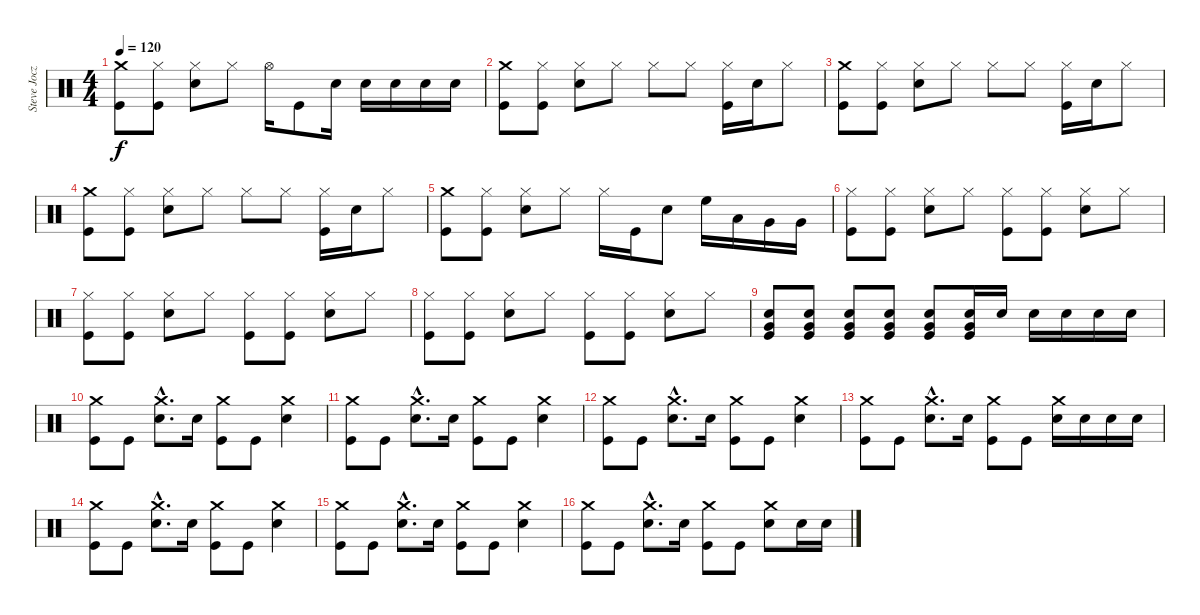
\track ("Steve Jocz (STEVO)" "Steve Jocz") {instrument percussion}
\staff {score}
\articulation defaults
\ts (4 4)
\tempo 120
\clef neutral
\ks c
("Crash medium (hit)" "Kick (hit)").8{dy f} ("Hi-Hat (closed)" "Kick (hit)").8 ("Hi-Hat (closed)" "Snare (hit) 2").8 "Hi-Hat (closed)".8 "Hi-Hat (open)".16 "Kick (hit)".8 "Snare (hit) 2".16 "Snare (hit) 2".16 "Snare (hit) 2".16 "Snare (hit) 2".16 "Snare (hit) 2".16 |
("Crash medium (hit)" "Kick (hit)").8 ("Hi-Hat (closed)" "Kick (hit)").8 ("Hi-Hat (closed)" "Snare (hit) 2").8 "Hi-Hat (closed)".8 "Hi-Hat (closed)".8 "Hi-Hat (closed)".8 ("Hi-Hat (closed)" "Kick (hit)").16 "Snare (hit) 2".16 "Hi-Hat (closed)".8 |
("Crash medium (hit)" "Kick (hit)").8 ("Hi-Hat (closed)" "Kick (hit)").8 ("Hi-Hat (closed)" "Snare (hit) 2").8 "Hi-Hat (closed)".8 "Hi-Hat (closed)".8 "Hi-Hat (closed)".8 ("Hi-Hat (closed)" "Kick (hit)").16 "Snare (hit) 2".16 "Hi-Hat (closed)".8 |
("Crash medium (hit)" "Kick (hit)").8 ("Hi-Hat (closed)" "Kick (hit)").8 ("Hi-Hat (closed)" "Snare (hit) 2").8 "Hi-Hat (closed)".8 "Hi-Hat (closed)".8 "Hi-Hat (closed)".8 ("Hi-Hat (closed)" "Kick (hit)").16 "Snare (hit) 2".16 "Hi-Hat (closed)".8 |
("Crash medium (hit)" "Kick (hit)").8 ("Hi-Hat (closed)" "Kick (hit)").8 ("Hi-Hat (closed)" "Snare (hit) 2").8 "Hi-Hat (closed)".8 "Hi-Hat (closed)".16 "Kick (hit)".16 "Snare (hit) 2".8 "High Floor Tom (hit)".16 "Low Tom (hit)".16 "Very Low Tom (hit)".16 "Very Low Tom (hit)".16 |
("Hi-Hat (closed)" "Kick (hit)").8 ("Hi-Hat (closed)" "Kick (hit)").8 ("Hi-Hat (closed)" "Snare (hit) 2").8 "Hi-Hat (closed)".8 ("Hi-Hat (closed)" "Kick (hit)").8 ("Hi-Hat (closed)" "Kick (hit)").8 ("Hi-Hat (closed)" "Snare (hit) 2").8 "Hi-Hat (closed)".8 |
("Hi-Hat (closed)" "Kick (hit)").8 ("Hi-Hat (closed)" "Kick (hit)").8 ("Hi-Hat (closed)" "Snare (hit) 2").8 "Hi-Hat (closed)".8 ("Hi-Hat (closed)" "Kick (hit)").8 ("Hi-Hat (closed)" "Kick (hit)").8 ("Hi-Hat (closed)" "Snare (hit) 2").8 "Hi-Hat (closed)".8 |
("Hi-Hat (closed)" "Kick (hit)").8 ("Hi-Hat (closed)" "Kick (hit)").8 ("Hi-Hat (closed)" "Snare (hit) 2").8 "Hi-Hat (closed)".8 ("Hi-Hat (closed)" "Kick (hit)").8 ("Hi-Hat (closed)" "Kick (hit)").8 ("Hi-Hat (closed)" "Snare (hit) 2").8 "Hi-Hat (closed)".8 |
("Very Low Tom (hit)" "Snare (hit) 2" "Kick (hit)").8 ("Very Low Tom (hit)" "Snare (hit) 2" "Kick (hit)").8 ("Very Low Tom (hit)" "Snare (hit) 2" "Kick (hit)").8 ("Very Low Tom (hit)" "Snare (hit) 2" "Kick (hit)").8 ("Very Low Tom (hit)" "Snare (hit) 2" "Kick (hit)").8 ("Very Low Tom (hit)" "Snare (hit) 2" "Kick (hit)").16 "Snare (hit) 2".16 "Snare (hit) 2".16 "Snare (hit) 2".16 "Snare (hit) 2".16 "Snare (hit) 2".16 |
("Crash medium (hit)" "Kick (hit)").8 "Kick (hit)".8 ("Crash medium (hit)"{hac} "Snare (hit) 2"{hac}).8{d} "Snare (hit) 2".16 ("Crash medium (hit)" "Kick (hit)").8 "Kick (hit)".8 ("Crash medium (hit)" "Snare (hit) 2").4 |
("Crash medium (hit)" "Kick (hit)").8 "Kick (hit)".8 ("Crash medium (hit)"{hac} "Snare (hit) 2"{hac}).8{d} "Snare (hit) 2".16 ("Crash medium (hit)" "Kick (hit)").8 "Kick (hit)".8 ("Crash medium (hit)" "Snare (hit) 2").4 |
("Crash medium (hit)" "Kick (hit)").8 "Kick (hit)".8 ("Crash medium (hit)"{hac} "Snare (hit) 2"{hac}).8{d} "Snare (hit) 2".16 ("Crash medium (hit)" "Kick (hit)").8 "Kick (hit)".8 ("Crash medium (hit)" "Snare (hit) 2").4 |
("Crash medium (hit)" "Kick (hit)").8 "Kick (hit)".8 ("Crash medium (hit)"{hac} "Snare (hit) 2"{hac}).8{d} "Snare (hit) 2".16 ("Crash medium (hit)" "Kick (hit)").8 "Kick (hit)".8 ("Crash medium (hit)" "Snare (hit) 2").16 "Snare (hit) 2".16 "Snare (hit) 2".16 "Snare (hit) 2".16 |
("Crash medium (hit)" "Kick (hit)").8 "Kick (hit)".8 ("Crash medium (hit)"{hac} "Snare (hit) 2"{hac}).8{d} "Snare (hit) 2".16 ("Crash medium (hit)" "Kick (hit)").8 "Kick (hit)".8 ("Crash medium (hit)" "Snare (hit) 2").4 |
("Crash medium (hit)" "Kick (hit)").8 "Kick (hit)".8 ("Crash medium (hit)"{hac} "Snare (hit) 2"{hac}).8{d} "Snare (hit) 2".16 ("Crash medium (hit)" "Kick (hit)").8 "Kick (hit)".8 ("Crash medium (hit)" "Snare (hit) 2").4 |
("Crash medium (hit)" "Kick (hit)").8 "Kick (hit)".8 ("Crash medium (hit)"{hac} "Snare (hit) 2"{hac}).8{d} "Snare (hit) 2".16 ("Crash medium (hit)" "Kick (hit)").8 "Kick (hit)".8 ("Crash medium (hit)" "Snare (hit) 2").8 "Snare (hit) 2".16 "Snare (hit) 2".16
